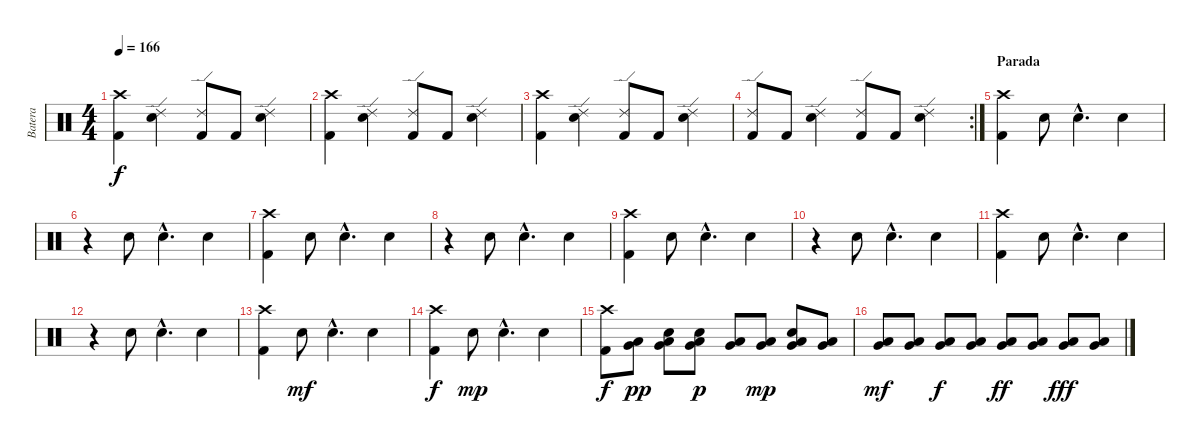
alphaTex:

\track ("Batera" "Batera") {instrument percussion}
\staff {score}
\articulation defaults
\ts (4 4)
\tempo 166
\clef neutral
\ks c
("Crash high (hit)" "Kick (hit) 2").4{dy f} ("Ride (edge) 2" "Snare (hit) 2").4 ("Ride (edge) 2" "Kick (hit) 2").8 "Kick (hit) 2".8 ("Ride (edge) 2" "Snare (hit) 2").4 |
("Crash high (hit)" "Kick (hit) 2").4 ("Ride (edge) 2" "Snare (hit) 2").4 ("Ride (edge) 2" "Kick (hit) 2").8 "Kick (hit) 2".8 ("Ride (edge) 2" "Snare (hit) 2").4 |
("Crash high (hit)" "Kick (hit) 2").4 ("Ride (edge) 2" "Snare (hit) 2").4 ("Ride (edge) 2" "Kick (hit) 2").8 "Kick (hit) 2".8 ("Ride (edge) 2" "Snare (hit) 2").4 |
\rc 2
("Ride (edge) 2" "Kick (hit) 2").8 "Kick (hit) 2".8 ("Ride (edge) 2" "Snare (hit) 2").4 ("Ride (edge) 2" "Kick (hit) 2").8 "Kick (hit) 2".8 ("Ride (edge) 2" "Snare (hit) 2").4 |
\section ("" "Parada")
("Crash high (hit)" "Kick (hit) 2").4 "Hand Clap (hit)".8 "Hand Clap (hit)"{hac}.4{d} "Hand Clap (hit)".4 |
r.4 "Hand Clap (hit)".8 "Hand Clap (hit)"{hac}.4{d} "Hand Clap (hit)".4 |
("Crash high (hit)" "Kick (hit) 2").4 "Hand Clap (hit)".8 "Hand Clap (hit)"{hac}.4{d} "Hand Clap (hit)".4 |
r.4 "Hand Clap (hit)".8 "Hand Clap (hit)"{hac}.4{d} "Hand Clap (hit)".4 |
("Crash high (hit)" "Kick (hit) 2").4 "Hand Clap (hit)".8 "Hand Clap (hit)"{hac}.4{d} "Hand Clap (hit)".4 |
r.4 "Hand Clap (hit)".8 "Hand Clap (hit)"{hac}.4{d} "Hand Clap (hit)".4 |
("Crash high (hit)" "Kick (hit) 2").4 "Hand Clap (hit)".8 "Hand Clap (hit)"{hac}.4{d} "Hand Clap (hit)".4 |
r.4 "Hand Clap (hit)".8 "Hand Clap (hit)"{hac}.4{d} "Hand Clap (hit)".4 |
("Crash high (hit)" "Kick (hit) 2").4 "Hand Clap (hit)".8{dy mf} "Hand Clap (hit)"{hac}.4{d} "Hand Clap (hit)".4 |
("Crash high (hit)" "Kick (hit) 2").4{dy f} "Hand Clap (hit)".8{dy mp} "Hand Clap (hit)"{hac}.4{d} "Hand Clap (hit)".4 |
("Crash high (hit)" "Kick (hit) 2").8{dy f} ("Very Low Tom (hit)" "Low Tom (hit)").8{dy pp} ("Hand Clap (hit)" "Very Low Tom (hit)" "Low Tom (hit)").8 ("Hand Clap (hit)" "Very Low Tom (hit)" "Low Tom (hit)").8{dy p} ("Very Low Tom (hit)" "Low Tom (hit)").8 ("Very Low Tom (hit)" "Low Tom (hit)").8{dy mp} ("Hand Clap (hit)" "Very Low Tom (hit)" "Low Tom (hit)").8 ("Very Low Tom (hit)" "Low Tom (hit)").8 |
("Very Low Tom (hit)" "Low Tom (hit)").8{dy mf} ("Very Low Tom (hit)" "Low Tom (hit)").8 ("Very Low Tom (hit)" "Low Tom (hit)").8{dy f} ("Very Low Tom (hit)" "Low Tom (hit)").8 ("Very Low Tom (hit)" "Low Tom (hit)").8{dy ff} ("Very Low Tom (hit)" "Low Tom (hit)").8 ("Very Low Tom (hit)" "Low Tom (hit)").8{dy fff} ("Very Low Tom (hit)" "Low Tom (hit)").8
